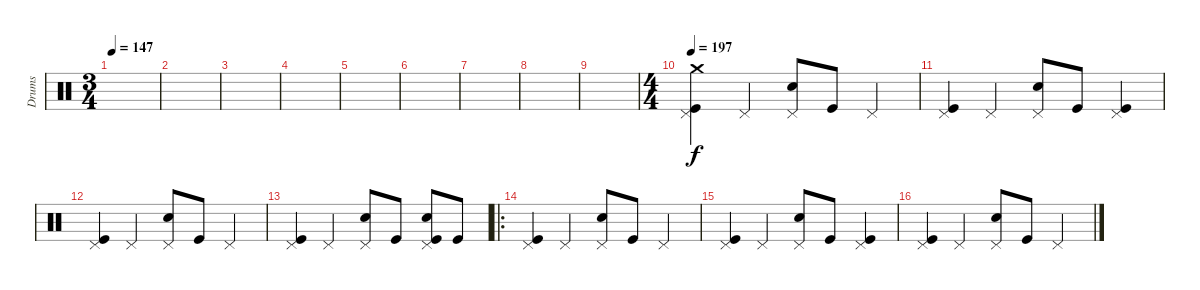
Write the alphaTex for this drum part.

\track ("Drums" "Drums") {instrument percussion}
\staff {score}
\articulation defaults
\ts (3 4)
\tempo 147
\clef neutral
\ks c
|
|
|
|
|
|
|
|
|
\ts (4 4)
\tempo 197
("Crash medium (hit)" "Pedal Hi-Hat (hit)" "Kick (hit)").4{volume 16} "Pedal Hi-Hat (hit)".4 ("Pedal Hi-Hat (hit)" "Snare (hit) 2").8 "Kick (hit)".8 "Pedal Hi-Hat (hit)".4 |
("Pedal Hi-Hat (hit)" "Kick (hit)").4 "Pedal Hi-Hat (hit)".4 ("Pedal Hi-Hat (hit)" "Snare (hit) 2").8 "Kick (hit)".8 ("Pedal Hi-Hat (hit)" "Kick (hit)").4 |
("Pedal Hi-Hat (hit)" "Kick (hit)").4 "Pedal Hi-Hat (hit)".4 ("Pedal Hi-Hat (hit)" "Snare (hit) 2").8 "Kick (hit)".8 "Pedal Hi-Hat (hit)".4 |
("Pedal Hi-Hat (hit)" "Kick (hit)").4 "Pedal Hi-Hat (hit)".4 ("Pedal Hi-Hat (hit)" "Snare (hit) 2").8 "Kick (hit)".8 ("Pedal Hi-Hat (hit)" "Snare (hit) 2" "Kick (hit)").8 "Kick (hit)".8 |
\ro
("Pedal Hi-Hat (hit)" "Kick (hit)").4 "Pedal Hi-Hat (hit)".4 ("Pedal Hi-Hat (hit)" "Snare (hit) 2").8 "Kick (hit)".8 "Pedal Hi-Hat (hit)".4 |
("Pedal Hi-Hat (hit)" "Kick (hit)").4 "Pedal Hi-Hat (hit)".4 ("Pedal Hi-Hat (hit)" "Snare (hit) 2").8 "Kick (hit)".8 ("Pedal Hi-Hat (hit)" "Kick (hit)").4 |
("Pedal Hi-Hat (hit)" "Kick (hit)").4 "Pedal Hi-Hat (hit)".4 ("Pedal Hi-Hat (hit)" "Snare (hit) 2").8 "Kick (hit)".8 "Pedal Hi-Hat (hit)".4
